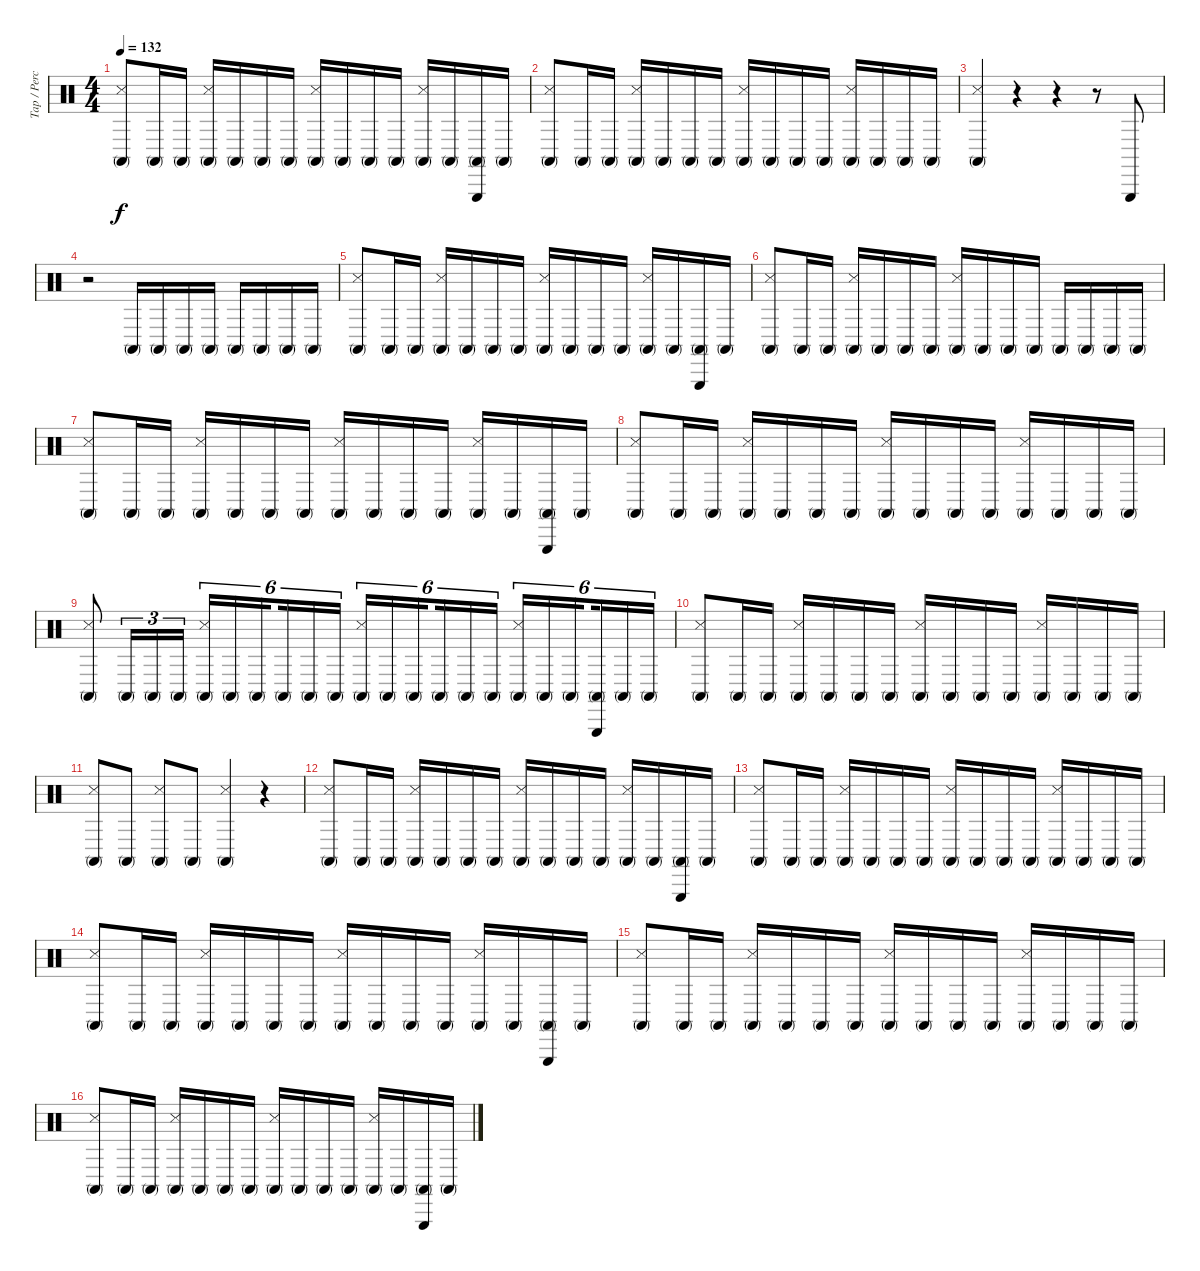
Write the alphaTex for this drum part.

\track ("Tap / Percussion" "Tap / Perc") {instrument percussion}
\staff {score}
\articulation defaults
\ts (4 4)
\tempo 132
\clef neutral
\ks c
("Conga high (mute)" "Snare (side stick) 3").8{dy f} "Conga high (mute)".16 "Conga high (mute)".16 ("Conga high (mute)" "Snare (side stick) 3").16 "Conga high (mute)".16 "Conga high (mute)".16 "Conga high (mute)".16 ("Conga high (mute)" "Snare (side stick) 3").16 "Conga high (mute)".16 "Conga high (mute)".16 "Conga high (mute)".16 ("Conga high (mute)" "Snare (side stick) 3").16 "Conga high (mute)".16 ("Conga high (mute)" "Triangle (hit)").16 "Conga high (mute)".16 |
("Conga high (mute)" "Snare (side stick) 3").8 "Conga high (mute)".16 "Conga high (mute)".16 ("Conga high (mute)" "Snare (side stick) 3").16 "Conga high (mute)".16 "Conga high (mute)".16 "Conga high (mute)".16 ("Conga high (mute)" "Snare (side stick) 3").16 "Conga high (mute)".16 "Conga high (mute)".16 "Conga high (mute)".16 ("Conga high (mute)" "Snare (side stick) 3").16 "Conga high (mute)".16 "Conga high (mute)".16 "Conga high (mute)".16 |
("Conga high (mute)" "Snare (side stick) 3").4 r.4 r.4 r.8 "Triangle (hit)".8 |
r.2 "Conga high (mute)".16 "Conga high (mute)".16 "Conga high (mute)".16 "Conga high (mute)".16 "Conga high (mute)".16 "Conga high (mute)".16 "Conga high (mute)".16 "Conga high (mute)".16 |
("Conga high (mute)" "Snare (side stick) 3").8 "Conga high (mute)".16 "Conga high (mute)".16 ("Conga high (mute)" "Snare (side stick) 3").16 "Conga high (mute)".16 "Conga high (mute)".16 "Conga high (mute)".16 ("Conga high (mute)" "Snare (side stick) 3").16 "Conga high (mute)".16 "Conga high (mute)".16 "Conga high (mute)".16 ("Conga high (mute)" "Snare (side stick) 3").16 "Conga high (mute)".16 ("Conga high (mute)" "Triangle (hit)").16 "Conga high (mute)".16 |
("Conga high (mute)" "Snare (side stick) 3").8 "Conga high (mute)".16 "Conga high (mute)".16 ("Conga high (mute)" "Snare (side stick) 3").16 "Conga high (mute)".16 "Conga high (mute)".16 "Conga high (mute)".16 ("Conga high (mute)" "Snare (side stick) 3").16 "Conga high (mute)".16 "Conga high (mute)".16 "Conga high (mute)".16 "Conga high (mute)".16 "Conga high (mute)".16 "Conga high (mute)".16 "Conga high (mute)".16 |
("Conga high (mute)" "Snare (side stick) 3").8 "Conga high (mute)".16 "Conga high (mute)".16 ("Conga high (mute)" "Snare (side stick) 3").16 "Conga high (mute)".16 "Conga high (mute)".16 "Conga high (mute)".16 ("Conga high (mute)" "Snare (side stick) 3").16 "Conga high (mute)".16 "Conga high (mute)".16 "Conga high (mute)".16 ("Conga high (mute)" "Snare (side stick) 3").16 "Conga high (mute)".16 ("Conga high (mute)" "Triangle (hit)").16 "Conga high (mute)".16 |
("Conga high (mute)" "Snare (side stick) 3").8 "Conga high (mute)".16 "Conga high (mute)".16 ("Conga high (mute)" "Snare (side stick) 3").16 "Conga high (mute)".16 "Conga high (mute)".16 "Conga high (mute)".16 ("Conga high (mute)" "Snare (side stick) 3").16 "Conga high (mute)".16 "Conga high (mute)".16 "Conga high (mute)".16 ("Conga high (mute)" "Snare (side stick) 3").16 "Conga high (mute)".16 "Conga high (mute)".16 "Conga high (mute)".16 |
("Conga high (mute)" "Snare (side stick) 3").8 "Conga high (mute)".16{tu (3 2)} "Conga high (mute)".16{tu (3 2)} "Conga high (mute)".16{tu (3 2)} ("Conga high (mute)" "Snare (side stick) 3").16{tu (6 4)} "Conga high (mute)".16{tu (6 4)} "Conga high (mute)".16{tu (6 4) beam splitsecondary} "Conga high (mute)".16{tu (6 4)} "Conga high (mute)".16{tu (6 4)} "Conga high (mute)".16{tu (6 4)} ("Conga high (mute)" "Snare (side stick) 3").16{tu (6 4)} "Conga high (mute)".16{tu (6 4)} "Conga high (mute)".16{tu (6 4) beam splitsecondary} "Conga high (mute)".16{tu (6 4)} "Conga high (mute)".16{tu (6 4)} "Conga high (mute)".16{tu (6 4)} ("Conga high (mute)" "Snare (side stick) 3").16{tu (6 4)} "Conga high (mute)".16{tu (6 4)} "Conga high (mute)".16{tu (6 4) beam splitsecondary} ("Conga high (mute)" "Triangle (hit)").16{tu (6 4)} "Conga high (mute)".16{tu (6 4)} "Conga high (mute)".16{tu (6 4)} |
("Conga high (mute)" "Snare (side stick) 3").8 "Conga high (mute)".16 "Conga high (mute)".16 ("Conga high (mute)" "Snare (side stick) 3").16 "Conga high (mute)".16 "Conga high (mute)".16 "Conga high (mute)".16 ("Conga high (mute)" "Snare (side stick) 3").16 "Conga high (mute)".16 "Conga high (mute)".16 "Conga high (mute)".16 ("Conga high (mute)" "Snare (side stick) 3").16 "Conga high (mute)".16 "Conga high (mute)".16 "Conga high (mute)".16 |
("Conga high (mute)" "Snare (side stick) 3").8 "Conga high (mute)".8 ("Conga high (mute)" "Snare (side stick) 3").8 "Conga high (mute)".8 ("Conga high (mute)" "Snare (side stick) 3").4 r.4 |
("Conga high (mute)" "Snare (side stick) 3").8 "Conga high (mute)".16 "Conga high (mute)".16 ("Conga high (mute)" "Snare (side stick) 3").16 "Conga high (mute)".16 "Conga high (mute)".16 "Conga high (mute)".16 ("Conga high (mute)" "Snare (side stick) 3").16 "Conga high (mute)".16 "Conga high (mute)".16 "Conga high (mute)".16 ("Conga high (mute)" "Snare (side stick) 3").16 "Conga high (mute)".16 ("Conga high (mute)" "Triangle (hit)").16 "Conga high (mute)".16 |
("Conga high (mute)" "Snare (side stick) 3").8 "Conga high (mute)".16 "Conga high (mute)".16 ("Conga high (mute)" "Snare (side stick) 3").16 "Conga high (mute)".16 "Conga high (mute)".16 "Conga high (mute)".16 ("Conga high (mute)" "Snare (side stick) 3").16 "Conga high (mute)".16 "Conga high (mute)".16 "Conga high (mute)".16 ("Conga high (mute)" "Snare (side stick) 3").16 "Conga high (mute)".16 "Conga high (mute)".16 "Conga high (mute)".16 |
("Conga high (mute)" "Snare (side stick) 3").8 "Conga high (mute)".16 "Conga high (mute)".16 ("Conga high (mute)" "Snare (side stick) 3").16 "Conga high (mute)".16 "Conga high (mute)".16 "Conga high (mute)".16 ("Conga high (mute)" "Snare (side stick) 3").16 "Conga high (mute)".16 "Conga high (mute)".16 "Conga high (mute)".16 ("Conga high (mute)" "Snare (side stick) 3").16 "Conga high (mute)".16 ("Conga high (mute)" "Triangle (hit)").16 "Conga high (mute)".16 |
("Conga high (mute)" "Snare (side stick) 3").8 "Conga high (mute)".16 "Conga high (mute)".16 ("Conga high (mute)" "Snare (side stick) 3").16 "Conga high (mute)".16 "Conga high (mute)".16 "Conga high (mute)".16 ("Conga high (mute)" "Snare (side stick) 3").16 "Conga high (mute)".16 "Conga high (mute)".16 "Conga high (mute)".16 ("Conga high (mute)" "Snare (side stick) 3").16 "Conga high (mute)".16 "Conga high (mute)".16 "Conga high (mute)".16 |
("Conga high (mute)" "Snare (side stick) 3").8 "Conga high (mute)".16 "Conga high (mute)".16 ("Conga high (mute)" "Snare (side stick) 3").16 "Conga high (mute)".16 "Conga high (mute)".16 "Conga high (mute)".16 ("Conga high (mute)" "Snare (side stick) 3").16 "Conga high (mute)".16 "Conga high (mute)".16 "Conga high (mute)".16 ("Conga high (mute)" "Snare (side stick) 3").16 "Conga high (mute)".16 ("Conga high (mute)" "Triangle (hit)").16 "Conga high (mute)".16
